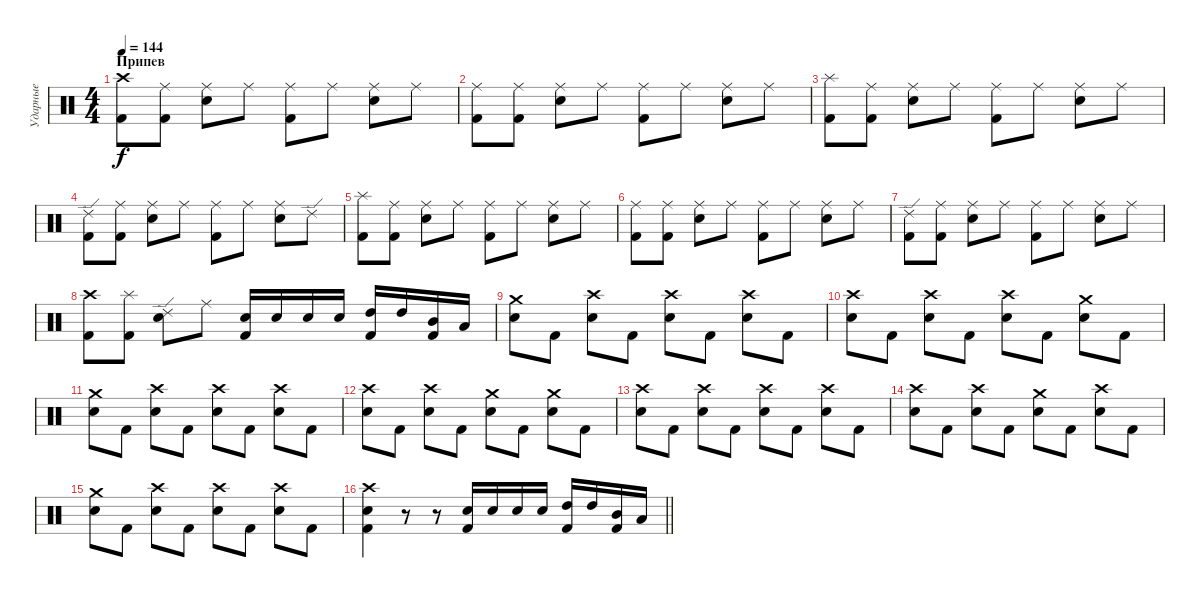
\track ("Ударные" "Ударные") {instrument percussion}
\staff {score}
\articulation defaults
\ts (4 4)
\section ("" "Припев ")
\tempo 144
\clef neutral
\ks c
("Crash high (hit)" "Kick (hit) 2").8{dy f} ("Ride (middle)" "Kick (hit) 2").8 ("Ride (middle)" "Snare (hit) 2").8 "Ride (middle)".8 ("Ride (middle)" "Kick (hit) 2").8 "Ride (middle)".8 ("Ride (middle)" "Snare (hit) 2").8 "Ride (middle)".8 |
("Ride (middle)" "Kick (hit) 2").8 ("Ride (middle)" "Kick (hit) 2").8 ("Ride (middle)" "Snare (hit) 2").8 "Ride (middle)".8 ("Ride (middle)" "Kick (hit) 2").8 "Ride (middle)".8 ("Ride (middle)" "Snare (hit) 2").8 "Ride (middle)".8 |
("Splash (hit)" "Kick (hit) 2").8 ("Ride (middle)" "Kick (hit) 2").8 ("Ride (middle)" "Snare (hit) 2").8 "Ride (middle)".8 ("Ride (middle)" "Kick (hit) 2").8 "Ride (middle)".8 ("Ride (middle)" "Snare (hit) 2").8 "Ride (middle)".8 |
("Ride (edge) 2" "Kick (hit) 2").8 ("Ride (middle)" "Kick (hit) 2").8 ("Ride (middle)" "Snare (hit) 2").8 "Ride (middle)".8 ("Ride (middle)" "Kick (hit) 2").8 "Ride (middle)".8 ("Ride (middle)" "Snare (hit) 2").8 "Ride (edge) 2".8 |
("Splash (hit)" "Kick (hit) 2").8 ("Ride (middle)" "Kick (hit) 2").8 ("Ride (middle)" "Snare (hit) 2").8 "Ride (middle)".8 ("Ride (middle)" "Kick (hit) 2").8 "Ride (middle)".8 ("Ride (middle)" "Snare (hit) 2").8 "Ride (middle)".8 |
("Ride (middle)" "Kick (hit) 2").8 ("Ride (middle)" "Kick (hit) 2").8 ("Ride (middle)" "Snare (hit) 2").8 "Ride (middle)".8 ("Ride (middle)" "Kick (hit) 2").8 "Ride (middle)".8 ("Ride (middle)" "Snare (hit) 2").8 "Ride (middle)".8 |
("Ride (edge) 2" "Kick (hit) 2").8 ("Ride (middle)" "Kick (hit) 2").8 ("Ride (middle)" "Snare (hit) 2").8 "Ride (middle)".8 ("Ride (middle)" "Kick (hit) 2").8 "Ride (middle)".8 ("Ride (middle)" "Snare (hit) 2").8 "Ride (middle)".8 |
("Crash high (hit)" "Kick (hit) 2").8 ("Splash (hit)" "Kick (hit) 2").8 ("Ride (edge) 2" "Snare (hit) 2").8 "Ride (middle)".8 ("Snare (hit) 2" "Kick (hit) 2").16 "Snare (hit) 2".16 "Snare (hit) 2".16 "Snare (hit) 2".16 ("High Tom (hit)" "Kick (hit) 2").16 "High Tom (hit)".16 ("Mid Tom (hit)" "Kick (hit) 2").16 "Low Tom (hit)".16 |
("Crash medium (hit)" "Snare (hit) 2").8 "Kick (hit) 2".8 ("Crash high (hit)" "Snare (hit) 2").8 "Kick (hit) 2".8 ("Crash high (hit)" "Snare (hit) 2").8 "Kick (hit) 2".8 ("Crash high (hit)" "Snare (hit) 2").8 "Kick (hit) 2".8 |
("Crash high (hit)" "Snare (hit) 2").8 "Kick (hit) 2".8 ("Crash high (hit)" "Snare (hit) 2").8 "Kick (hit) 2".8 ("Crash high (hit)" "Snare (hit) 2").8 "Kick (hit) 2".8 ("Crash medium (hit)" "Snare (hit) 2").8 "Kick (hit) 2".8 |
("Crash medium (hit)" "Snare (hit) 2").8 "Kick (hit) 2".8 ("Crash high (hit)" "Snare (hit) 2").8 "Kick (hit) 2".8 ("Crash high (hit)" "Snare (hit) 2").8 "Kick (hit) 2".8 ("Crash high (hit)" "Snare (hit) 2").8 "Kick (hit) 2".8 |
("Crash high (hit)" "Snare (hit) 2").8 "Kick (hit) 2".8 ("Crash high (hit)" "Snare (hit) 2").8 "Kick (hit) 2".8 ("Crash medium (hit)" "Snare (hit) 2").8 "Kick (hit) 2".8 ("Crash medium (hit)" "Snare (hit) 2").8 "Kick (hit) 2".8 |
("Crash high (hit)" "Snare (hit) 2").8 "Kick (hit) 2".8 ("Crash high (hit)" "Snare (hit) 2").8 "Kick (hit) 2".8 ("Crash high (hit)" "Snare (hit) 2").8 "Kick (hit) 2".8 ("Crash high (hit)" "Snare (hit) 2").8 "Kick (hit) 2".8 |
("Crash high (hit)" "Snare (hit) 2").8 "Kick (hit) 2".8 ("Crash high (hit)" "Snare (hit) 2").8 "Kick (hit) 2".8 ("Crash medium (hit)" "Snare (hit) 2").8 "Kick (hit) 2".8 ("Crash high (hit)" "Snare (hit) 2").8 "Kick (hit) 2".8 |
("Crash medium (hit)" "Snare (hit) 2").8 "Kick (hit) 2".8 ("Crash high (hit)" "Snare (hit) 2").8 "Kick (hit) 2".8 ("Crash high (hit)" "Snare (hit) 2").8 "Kick (hit) 2".8 ("Crash high (hit)" "Snare (hit) 2").8 "Kick (hit) 2".8 |
\barLineRight lightlight
("Crash high (hit)" "Snare (hit) 2" "Kick (hit) 2").4 r.8 r.8 ("Snare (hit) 2" "Kick (hit) 2").16 "Snare (hit) 2".16 "Snare (hit) 2".16 "Snare (hit) 2".16 ("High Tom (hit)" "Kick (hit) 2").16 "High Tom (hit)".16 ("Mid Tom (hit)" "Kick (hit) 2").16 "Low Tom (hit)".16
